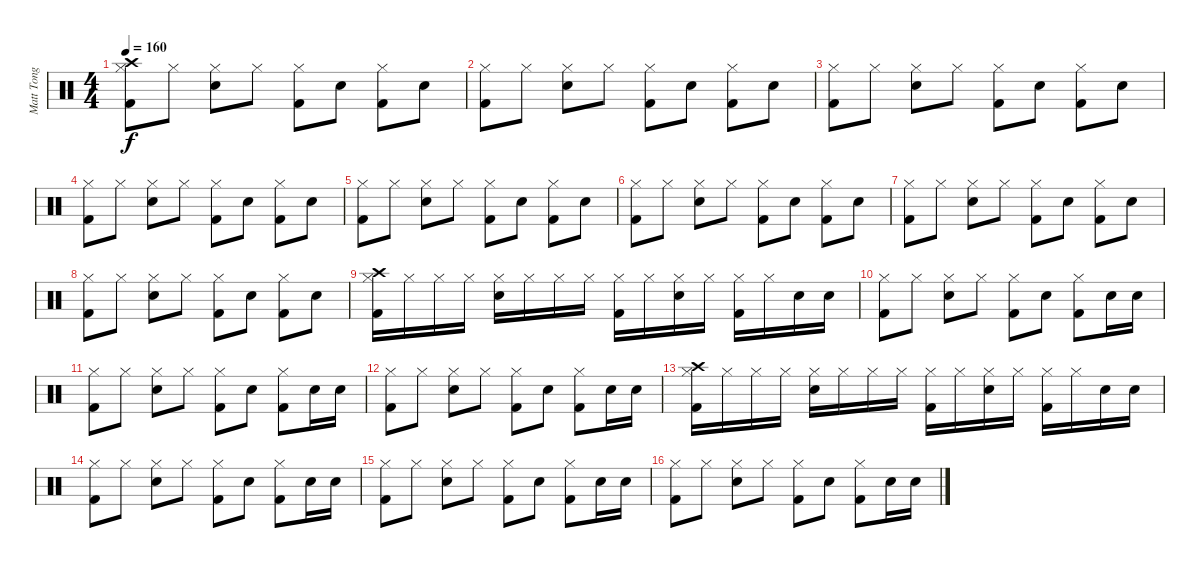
\track ("Matt Tong" "Matt Tong") {instrument percussion}
\staff {score}
\articulation defaults
\ts (4 4)
\tempo 160
\clef neutral
\ks c
("Crash high (hit)" "Hi-Hat (closed)" "Kick (hit) 2").8{dy f} "Hi-Hat (closed)".8 ("Hi-Hat (closed)" "Electric Snare (hit)").8 "Hi-Hat (closed)".8 ("Hi-Hat (closed)" "Kick (hit) 2").8 "Electric Snare (hit)".8 ("Hi-Hat (closed)" "Kick (hit) 2").8 "Electric Snare (hit)".8 |
("Hi-Hat (closed)" "Kick (hit) 2").8 "Hi-Hat (closed)".8 ("Hi-Hat (closed)" "Electric Snare (hit)").8 "Hi-Hat (closed)".8 ("Hi-Hat (closed)" "Kick (hit) 2").8 "Electric Snare (hit)".8 ("Hi-Hat (closed)" "Kick (hit) 2").8 "Electric Snare (hit)".8 |
("Hi-Hat (closed)" "Kick (hit) 2").8 "Hi-Hat (closed)".8 ("Hi-Hat (closed)" "Electric Snare (hit)").8 "Hi-Hat (closed)".8 ("Hi-Hat (closed)" "Kick (hit) 2").8 "Electric Snare (hit)".8 ("Hi-Hat (closed)" "Kick (hit) 2").8 "Electric Snare (hit)".8 |
("Hi-Hat (closed)" "Kick (hit) 2").8 "Hi-Hat (closed)".8 ("Hi-Hat (closed)" "Electric Snare (hit)").8 "Hi-Hat (closed)".8 ("Hi-Hat (closed)" "Kick (hit) 2").8 "Electric Snare (hit)".8 ("Hi-Hat (closed)" "Kick (hit) 2").8 "Electric Snare (hit)".8 |
("Hi-Hat (closed)" "Kick (hit) 2").8 "Hi-Hat (closed)".8 ("Hi-Hat (closed)" "Electric Snare (hit)").8 "Hi-Hat (closed)".8 ("Hi-Hat (closed)" "Kick (hit) 2").8 "Electric Snare (hit)".8 ("Hi-Hat (closed)" "Kick (hit) 2").8 "Electric Snare (hit)".8 |
("Hi-Hat (closed)" "Kick (hit) 2").8 "Hi-Hat (closed)".8 ("Hi-Hat (closed)" "Electric Snare (hit)").8 "Hi-Hat (closed)".8 ("Hi-Hat (closed)" "Kick (hit) 2").8 "Electric Snare (hit)".8 ("Hi-Hat (closed)" "Kick (hit) 2").8 "Electric Snare (hit)".8 |
("Hi-Hat (closed)" "Kick (hit) 2").8 "Hi-Hat (closed)".8 ("Hi-Hat (closed)" "Electric Snare (hit)").8 "Hi-Hat (closed)".8 ("Hi-Hat (closed)" "Kick (hit) 2").8 "Electric Snare (hit)".8 ("Hi-Hat (closed)" "Kick (hit) 2").8 "Electric Snare (hit)".8 |
("Hi-Hat (closed)" "Kick (hit) 2").8 "Hi-Hat (closed)".8 ("Hi-Hat (closed)" "Electric Snare (hit)").8 "Hi-Hat (closed)".8 ("Hi-Hat (closed)" "Kick (hit) 2").8 "Electric Snare (hit)".8 ("Hi-Hat (closed)" "Kick (hit) 2").8 "Electric Snare (hit)".8 |
("Crash high (hit)" "Hi-Hat (closed)" "Kick (hit) 2").16 "Hi-Hat (closed)".16 "Hi-Hat (closed)".16 "Hi-Hat (closed)".16 ("Hi-Hat (closed)" "Electric Snare (hit)").16 "Hi-Hat (closed)".16 "Hi-Hat (closed)".16 "Hi-Hat (closed)".16 ("Hi-Hat (closed)" "Kick (hit) 2").16 "Hi-Hat (closed)".16 ("Hi-Hat (closed)" "Electric Snare (hit)").16 "Hi-Hat (closed)".16 ("Hi-Hat (closed)" "Kick (hit) 2").16 "Hi-Hat (closed)".16 "Electric Snare (hit)".16 "Electric Snare (hit)".16 |
("Hi-Hat (closed)" "Kick (hit) 2").8 "Hi-Hat (closed)".8 ("Hi-Hat (closed)" "Electric Snare (hit)").8 "Hi-Hat (closed)".8 ("Hi-Hat (closed)" "Kick (hit) 2").8 "Electric Snare (hit)".8 ("Hi-Hat (closed)" "Kick (hit) 2").8 "Electric Snare (hit)".16 "Electric Snare (hit)".16 |
("Hi-Hat (closed)" "Kick (hit) 2").8 "Hi-Hat (closed)".8 ("Hi-Hat (closed)" "Electric Snare (hit)").8 "Hi-Hat (closed)".8 ("Hi-Hat (closed)" "Kick (hit) 2").8 "Electric Snare (hit)".8 ("Hi-Hat (closed)" "Kick (hit) 2").8 "Electric Snare (hit)".16 "Electric Snare (hit)".16 |
("Hi-Hat (closed)" "Kick (hit) 2").8 "Hi-Hat (closed)".8 ("Hi-Hat (closed)" "Electric Snare (hit)").8 "Hi-Hat (closed)".8 ("Hi-Hat (closed)" "Kick (hit) 2").8 "Electric Snare (hit)".8 ("Hi-Hat (closed)" "Kick (hit) 2").8 "Electric Snare (hit)".16 "Electric Snare (hit)".16 |
("Crash high (hit)" "Hi-Hat (closed)" "Kick (hit) 2").16 "Hi-Hat (closed)".16 "Hi-Hat (closed)".16 "Hi-Hat (closed)".16 ("Hi-Hat (closed)" "Electric Snare (hit)").16 "Hi-Hat (closed)".16 "Hi-Hat (closed)".16 "Hi-Hat (closed)".16 ("Hi-Hat (closed)" "Kick (hit) 2").16 "Hi-Hat (closed)".16 ("Hi-Hat (closed)" "Electric Snare (hit)").16 "Hi-Hat (closed)".16 ("Hi-Hat (closed)" "Kick (hit) 2").16 "Hi-Hat (closed)".16 "Electric Snare (hit)".16 "Electric Snare (hit)".16 |
("Hi-Hat (closed)" "Kick (hit) 2").8 "Hi-Hat (closed)".8 ("Hi-Hat (closed)" "Electric Snare (hit)").8 "Hi-Hat (closed)".8 ("Hi-Hat (closed)" "Kick (hit) 2").8 "Electric Snare (hit)".8 ("Hi-Hat (closed)" "Kick (hit) 2").8 "Electric Snare (hit)".16 "Electric Snare (hit)".16 |
("Hi-Hat (closed)" "Kick (hit) 2").8 "Hi-Hat (closed)".8 ("Hi-Hat (closed)" "Electric Snare (hit)").8 "Hi-Hat (closed)".8 ("Hi-Hat (closed)" "Kick (hit) 2").8 "Electric Snare (hit)".8 ("Hi-Hat (closed)" "Kick (hit) 2").8 "Electric Snare (hit)".16 "Electric Snare (hit)".16 |
("Hi-Hat (closed)" "Kick (hit) 2").8 "Hi-Hat (closed)".8 ("Hi-Hat (closed)" "Electric Snare (hit)").8 "Hi-Hat (closed)".8 ("Hi-Hat (closed)" "Kick (hit) 2").8 "Electric Snare (hit)".8 ("Hi-Hat (closed)" "Kick (hit) 2").8 "Electric Snare (hit)".16 "Electric Snare (hit)".16
